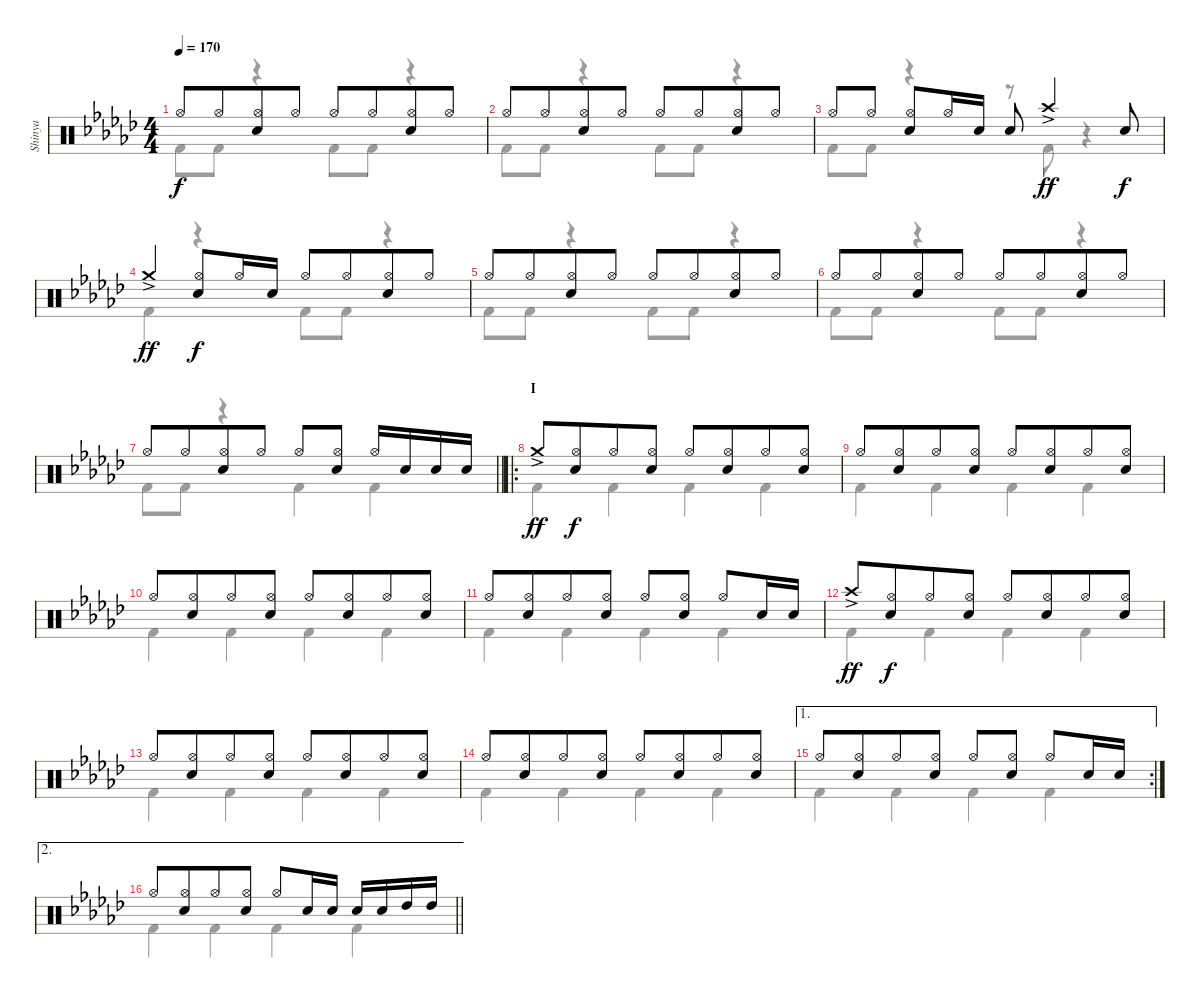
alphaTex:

\track ("Shinya" "Shinya") {instrument percussion}
\staff {score}
\articulation defaults
\voice
\ts (4 4)
\tempo 170
\clef neutral
\ks ebminor "Hi-Hat (open)".8{dy f} "Hi-Hat (open)".8{beam merge}
("Hi-Hat (open)" "Snare (hit) 2").8 "Hi-Hat (open)".8 "Hi-Hat (open)".8 "Hi-Hat (open)".8{beam merge} ("Hi-Hat (open)" "Snare (hit) 2").8 "Hi-Hat (open)".8 |
"Hi-Hat (open)".8 "Hi-Hat (open)".8{beam merge} ("Hi-Hat (open)" "Snare (hit) 2").8 "Hi-Hat (open)".8 "Hi-Hat (open)".8 "Hi-Hat (open)".8{beam merge} ("Hi-Hat (open)" "Snare (hit) 2").8 "Hi-Hat (open)".8 |
"Hi-Hat (open)".8 "Hi-Hat (open)".8 ("Hi-Hat (open)" "Snare (hit) 2").8 "Hi-Hat (open)".16 "Snare (hit) 2".16 "Snare (hit) 2".8 "Crash high (hit)"{ac}.4{dy ff} "Snare (hit) 2".8{dy f} |
"Crash medium (hit)"{ac}.4{dy ff} ("Hi-Hat (open)" "Snare (hit) 2").8{dy f} "Hi-Hat (open)".16 "Snare (hit) 2".16 "Hi-Hat (open)".8 "Hi-Hat (open)".8{beam merge} ("Hi-Hat (open)" "Snare (hit) 2").8 "Hi-Hat (open)".8 |
"Hi-Hat (open)".8 "Hi-Hat (open)".8{beam merge} ("Hi-Hat (open)" "Snare (hit) 2").8 "Hi-Hat (open)".8 "Hi-Hat (open)".8 "Hi-Hat (open)".8{beam merge} ("Hi-Hat (open)" "Snare (hit) 2").8 "Hi-Hat (open)".8 |
"Hi-Hat (open)".8 "Hi-Hat (open)".8{beam merge} ("Hi-Hat (open)" "Snare (hit) 2").8 "Hi-Hat (open)".8 "Hi-Hat (open)".8 "Hi-Hat (open)".8{beam merge} ("Hi-Hat (open)" "Snare (hit) 2").8 "Hi-Hat (open)".8 |
\barLineRight lightlight "Hi-Hat (open)".8 "Hi-Hat (open)".8{beam merge}
("Hi-Hat (open)" "Snare (hit) 2").8 "Hi-Hat (open)".8 "Hi-Hat (open)".8 ("Hi-Hat (open)" "Snare (hit) 2").8 "Hi-Hat (open)".16 "Snare (hit) 2".16 "Snare (hit) 2".16 "Snare (hit) 2".16 |
\ro
\section ("" "I")
"Crash medium (hit)"{ac}.8{dy ff} ("Hi-Hat (open)" "Snare (hit) 2").8{dy f beam merge} "Hi-Hat (open)".8 ("Hi-Hat (open)" "Snare (hit) 2").8 "Hi-Hat (open)".8 ("Hi-Hat (open)" "Snare (hit) 2").8{beam merge} "Hi-Hat (open)".8 ("Hi-Hat (open)" "Snare (hit) 2").8 |
"Hi-Hat (open)".8 ("Hi-Hat (open)" "Snare (hit) 2").8{beam merge} "Hi-Hat (open)".8 ("Hi-Hat (open)" "Snare (hit) 2").8 "Hi-Hat (open)".8 ("Hi-Hat (open)" "Snare (hit) 2").8{beam merge} "Hi-Hat (open)".8 ("Hi-Hat (open)" "Snare (hit) 2").8 |
"Hi-Hat (open)".8 ("Hi-Hat (open)" "Snare (hit) 2").8{beam merge} "Hi-Hat (open)".8 ("Hi-Hat (open)" "Snare (hit) 2").8 "Hi-Hat (open)".8 ("Hi-Hat (open)" "Snare (hit) 2").8{beam merge} "Hi-Hat (open)".8 ("Hi-Hat (open)" "Snare (hit) 2").8 |
"Hi-Hat (open)".8 ("Hi-Hat (open)" "Snare (hit) 2").8{beam merge} "Hi-Hat (open)".8 ("Hi-Hat (open)" "Snare (hit) 2").8 "Hi-Hat (open)".8 ("Hi-Hat (open)" "Snare (hit) 2").8 "Hi-Hat (open)".8 "Snare (hit) 2".16 "Snare (hit) 2".16 |
"Crash high (hit)"{ac}.8{dy ff} ("Hi-Hat (open)" "Snare (hit) 2").8{dy f beam merge} "Hi-Hat (open)".8 ("Hi-Hat (open)" "Snare (hit) 2").8 "Hi-Hat (open)".8 ("Hi-Hat (open)" "Snare (hit) 2").8{beam merge} "Hi-Hat (open)".8 ("Hi-Hat (open)" "Snare (hit) 2").8 |
"Hi-Hat (open)".8 ("Hi-Hat (open)" "Snare (hit) 2").8{beam merge} "Hi-Hat (open)".8 ("Hi-Hat (open)" "Snare (hit) 2").8 "Hi-Hat (open)".8 ("Hi-Hat (open)" "Snare (hit) 2").8{beam merge} "Hi-Hat (open)".8 ("Hi-Hat (open)" "Snare (hit) 2").8 |
"Hi-Hat (open)".8 ("Hi-Hat (open)" "Snare (hit) 2").8{beam merge} "Hi-Hat (open)".8 ("Hi-Hat (open)" "Snare (hit) 2").8 "Hi-Hat (open)".8 ("Hi-Hat (open)" "Snare (hit) 2").8{beam merge} "Hi-Hat (open)".8 ("Hi-Hat (open)" "Snare (hit) 2").8 |
\ae 1
\rc 2 "Hi-Hat (open)".8
("Hi-Hat (open)" "Snare (hit) 2").8{beam merge} "Hi-Hat (open)".8 ("Hi-Hat (open)" "Snare (hit) 2").8 "Hi-Hat (open)".8 ("Hi-Hat (open)" "Snare (hit) 2").8 "Hi-Hat (open)".8 "Snare (hit) 2".16 "Snare (hit) 2".16 |
\ae 2
\barLineRight lightlight "Hi-Hat (open)".8
("Hi-Hat (open)" "Snare (hit) 2").8{beam merge} "Hi-Hat (open)".8 ("Hi-Hat (open)" "Snare (hit) 2").8 "Hi-Hat (open)".8 "Snare (hit) 2".16 "Snare (hit) 2".16 "Snare (hit) 2".16 "Snare (hit) 2".16 "High Tom (hit)".16 "High Tom (hit)".16
\voice
\clef neutral
\ottava regular
\simile none
\ks ebminor "Kick (hit) 2".8{dy f} "Kick (hit) 2".8
r.4 "Kick (hit) 2".8 "Kick (hit) 2".8 r.4 |
"Kick (hit) 2".8 "Kick (hit) 2".8 r.4 "Kick (hit) 2".8 "Kick (hit) 2".8 r.4 |
"Kick (hit) 2".8 "Kick (hit) 2".8 r.4 r.8 "Kick (hit) 2".8 r.4 |
"Kick (hit) 2".4 r.4 "Kick (hit) 2".8 "Kick (hit) 2".8 r.4 |
"Kick (hit) 2".8 "Kick (hit) 2".8 r.4 "Kick (hit) 2".8 "Kick (hit) 2".8 r.4 |
"Kick (hit) 2".8 "Kick (hit) 2".8 r.4 "Kick (hit) 2".8 "Kick (hit) 2".8 r.4 |
\barLineRight lightlight "Kick (hit) 2".8 "Kick (hit) 2".8
r.4 "Kick (hit) 2".4 "Kick (hit) 2".4 |
"Kick (hit) 2".4 "Kick (hit) 2".4 "Kick (hit) 2".4 "Kick (hit) 2".4 |
"Kick (hit) 2".4 "Kick (hit) 2".4 "Kick (hit) 2".4 "Kick (hit) 2".4 |
"Kick (hit) 2".4 "Kick (hit) 2".4 "Kick (hit) 2".4 "Kick (hit) 2".4 |
"Kick (hit) 2".4 "Kick (hit) 2".4 "Kick (hit) 2".4 "Kick (hit) 2".4 |
"Kick (hit) 2".4 "Kick (hit) 2".4 "Kick (hit) 2".4 "Kick (hit) 2".4 |
"Kick (hit) 2".4 "Kick (hit) 2".4 "Kick (hit) 2".4 "Kick (hit) 2".4 |
"Kick (hit) 2".4 "Kick (hit) 2".4 "Kick (hit) 2".4 "Kick (hit) 2".4 |
"Kick (hit) 2".4 "Kick (hit) 2".4 "Kick (hit) 2".4 "Kick (hit) 2".4 |
\barLineRight lightlight "Kick (hit) 2".4 "Kick (hit) 2".4 "Kick (hit) 2".4 "Kick (hit) 2".4
